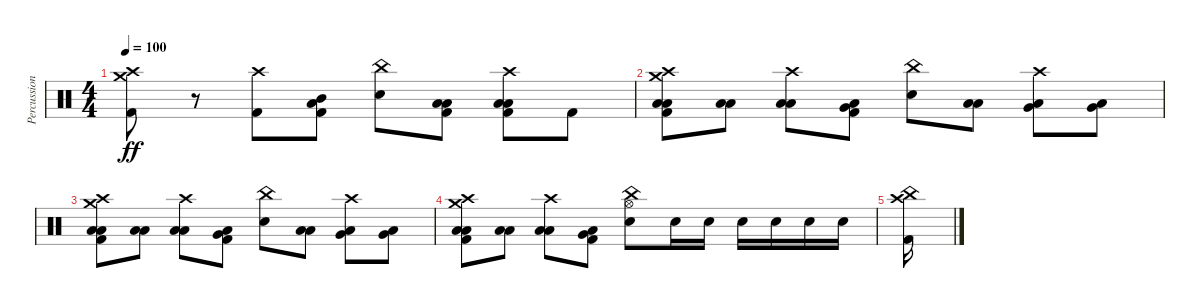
\track ("Percussion" "Percussion") {instrument percussion}
\staff {score}
\articulation defaults
\ts (4 4)
\tempo 100
\clef neutral
\ks c
("Crash high (hit)" "Crash medium (hit)" "Kick (hit) 2").8{dy ff} r.8 ("Crash high (hit)" "Kick (hit) 2").8 ("Low Tom (hit)" "Mid Tom (hit)" "Kick (hit) 2").8 ("China (hit)" "Electric Snare (hit)").8 ("Low Tom (hit)" "Low Tom (hit)" "Kick (hit) 2").8 ("Crash high (hit)" "Low Tom (hit)" "Low Tom (hit)" "Kick (hit) 2").8 "Kick (hit) 2".8 |
("Crash high (hit)" "Crash medium (hit)" "Low Tom (hit)" "Low Tom (hit)" "Kick (hit) 2").8 ("Low Tom (hit)" "Low Tom (hit)").8 ("Crash high (hit)" "Low Tom (hit)" "Low Tom (hit)").8 ("Very Low Tom (hit)" "Low Tom (hit)" "Kick (hit) 2").8 ("China (hit)" "Electric Snare (hit)").8 ("Low Tom (hit)" "Low Tom (hit)").8 ("Crash high (hit)" "Very Low Tom (hit)" "Low Tom (hit)").8 ("Very Low Tom (hit)" "Low Tom (hit)").8 |
("Crash high (hit)" "Crash medium (hit)" "Low Tom (hit)" "Low Tom (hit)" "Kick (hit) 2").8 ("Low Tom (hit)" "Low Tom (hit)").8 ("Crash high (hit)" "Low Tom (hit)" "Low Tom (hit)").8 ("Very Low Tom (hit)" "Low Tom (hit)" "Kick (hit) 2").8 ("China (hit)" "Electric Snare (hit)").8 ("Low Tom (hit)" "Low Tom (hit)").8 ("Crash high (hit)" "Very Low Tom (hit)" "Low Tom (hit)").8 ("Very Low Tom (hit)" "Low Tom (hit)").8 |
("Crash high (hit)" "Crash medium (hit)" "Low Tom (hit)" "Low Tom (hit)" "Kick (hit) 2").8 ("Low Tom (hit)" "Low Tom (hit)").8 ("Crash high (hit)" "Low Tom (hit)" "Low Tom (hit)").8 ("Very Low Tom (hit)" "Low Tom (hit)" "Kick (hit) 2").8 ("Hi-Hat (open)" "China (hit)" "Electric Snare (hit)").8 "Electric Snare (hit)".16 "Electric Snare (hit)".16 "Electric Snare (hit)".16 "Electric Snare (hit)".16 "Electric Snare (hit)".16 "Electric Snare (hit)".16 |
("Crash high (hit)" "China (hit)" "Kick (hit) 2").16
